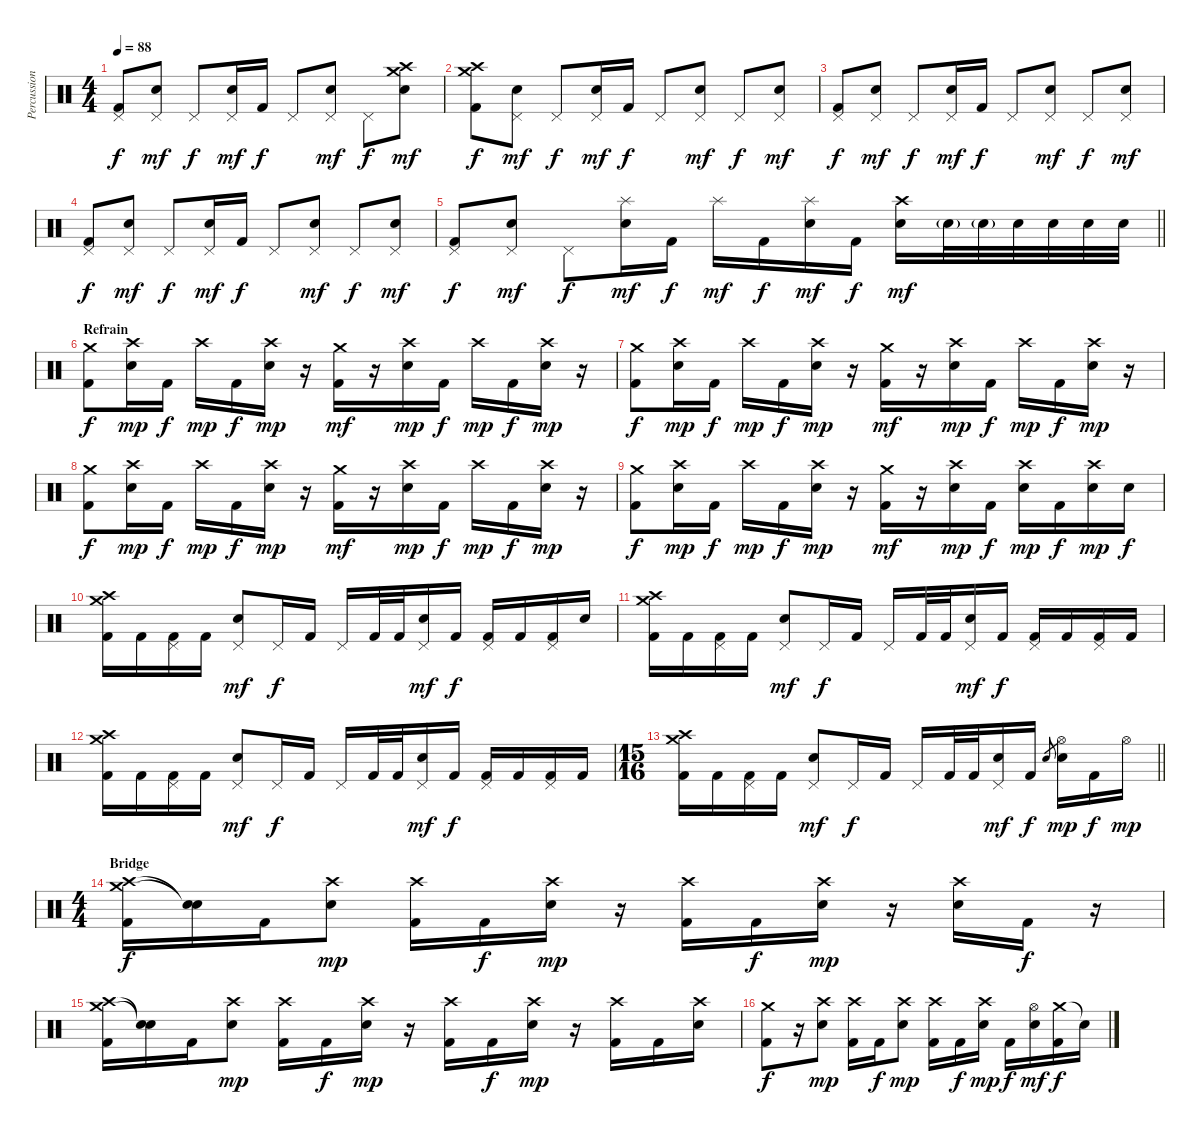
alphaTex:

\track ("Percussion" "Percussion") {instrument percussion}
\staff {score}
\articulation defaults
\ts (4 4)
\tempo 88
\clef neutral
\ks c
("Pedal Hi-Hat (hit)" "Kick (hit) 2").8{dy f} ("Pedal Hi-Hat (hit)" "Electric Snare (hit)").8{dy mf} "Pedal Hi-Hat (hit)".8{dy f} ("Pedal Hi-Hat (hit)" "Electric Snare (hit)").16{dy mf} "Kick (hit) 2".16{dy f} "Pedal Hi-Hat (hit)".8 ("Pedal Hi-Hat (hit)" "Electric Snare (hit)").8{dy mf} "Pedal Hi-Hat (hit)".8{dy f} ("Crash high (hit)" "Crash medium (hit)" "Electric Snare (hit)").8{dy mf} |
("Crash high (hit)" "Crash medium (hit)" "Kick (hit) 2").8{dy f} ("Pedal Hi-Hat (hit)" "Electric Snare (hit)").8{dy mf} "Pedal Hi-Hat (hit)".8{dy f} ("Pedal Hi-Hat (hit)" "Electric Snare (hit)").16{dy mf} "Kick (hit) 2".16{dy f} "Pedal Hi-Hat (hit)".8 ("Pedal Hi-Hat (hit)" "Electric Snare (hit)").8{dy mf} "Pedal Hi-Hat (hit)".8{dy f} ("Pedal Hi-Hat (hit)" "Electric Snare (hit)").8{dy mf} |
("Pedal Hi-Hat (hit)" "Kick (hit) 2").8{dy f} ("Pedal Hi-Hat (hit)" "Electric Snare (hit)").8{dy mf} "Pedal Hi-Hat (hit)".8{dy f} ("Pedal Hi-Hat (hit)" "Electric Snare (hit)").16{dy mf} "Kick (hit) 2".16{dy f} "Pedal Hi-Hat (hit)".8 ("Pedal Hi-Hat (hit)" "Electric Snare (hit)").8{dy mf} "Pedal Hi-Hat (hit)".8{dy f} ("Pedal Hi-Hat (hit)" "Electric Snare (hit)").8{dy mf} |
("Pedal Hi-Hat (hit)" "Kick (hit) 2").8{dy f} ("Pedal Hi-Hat (hit)" "Electric Snare (hit)").8{dy mf} "Pedal Hi-Hat (hit)".8{dy f} ("Pedal Hi-Hat (hit)" "Electric Snare (hit)").16{dy mf} "Kick (hit) 2".16{dy f} "Pedal Hi-Hat (hit)".8 ("Pedal Hi-Hat (hit)" "Electric Snare (hit)").8{dy mf} "Pedal Hi-Hat (hit)".8{dy f} ("Pedal Hi-Hat (hit)" "Electric Snare (hit)").8{dy mf} |
\barLineRight lightlight
("Pedal Hi-Hat (hit)" "Kick (hit) 2").8{dy f} ("Pedal Hi-Hat (hit)" "Electric Snare (hit)").8{dy mf} "Pedal Hi-Hat (hit)".8{dy f} ("Splash (hit)" "Electric Snare (hit)").16{dy mf} "Kick (hit) 2".16{dy f} "Splash (hit)".16{dy mf} "Kick (hit) 2".16{dy f} ("Splash (hit)" "Electric Snare (hit)").16{dy mf} "Kick (hit) 2".16{dy f} ("Crash high (hit)" "Electric Snare (hit)").16{dy mf} "Electric Snare (hit)"{g}.32 "Electric Snare (hit)"{g}.32 "Electric Snare (hit)".32 "Electric Snare (hit)".32 "Electric Snare (hit)".32 "Electric Snare (hit)".32 |
\section ("" "Refrain")
("Crash medium (hit)" "Kick (hit) 2").8{dy f} ("Crash high (hit)" "Electric Snare (hit)").16{dy mp} "Kick (hit) 2".16{dy f} "Crash high (hit)".16{dy mp} "Kick (hit) 2".16{dy f} ("Crash high (hit)" "Electric Snare (hit)").16{dy mp} r.16 ("Crash medium (hit)" "Kick (hit) 2").16{dy mf} r.16 ("Crash high (hit)" "Electric Snare (hit)").16{dy mp} "Kick (hit) 2".16{dy f} "Crash high (hit)".16{dy mp} "Kick (hit) 2".16{dy f} ("Crash high (hit)" "Electric Snare (hit)").16{dy mp} r.16 |
("Crash medium (hit)" "Kick (hit) 2").8{dy f} ("Crash high (hit)" "Electric Snare (hit)").16{dy mp} "Kick (hit) 2".16{dy f} "Crash high (hit)".16{dy mp} "Kick (hit) 2".16{dy f} ("Crash high (hit)" "Electric Snare (hit)").16{dy mp} r.16 ("Crash medium (hit)" "Kick (hit) 2").16{dy mf} r.16 ("Crash high (hit)" "Electric Snare (hit)").16{dy mp} "Kick (hit) 2".16{dy f} "Crash high (hit)".16{dy mp} "Kick (hit) 2".16{dy f} ("Crash high (hit)" "Electric Snare (hit)").16{dy mp} r.16 |
("Crash medium (hit)" "Kick (hit) 2").8{dy f} ("Crash high (hit)" "Electric Snare (hit)").16{dy mp} "Kick (hit) 2".16{dy f} "Crash high (hit)".16{dy mp} "Kick (hit) 2".16{dy f} ("Crash high (hit)" "Electric Snare (hit)").16{dy mp} r.16 ("Crash medium (hit)" "Kick (hit) 2").16{dy mf} r.16 ("Crash high (hit)" "Electric Snare (hit)").16{dy mp} "Kick (hit) 2".16{dy f} "Crash high (hit)".16{dy mp} "Kick (hit) 2".16{dy f} ("Crash high (hit)" "Electric Snare (hit)").16{dy mp} r.16 |
("Crash medium (hit)" "Kick (hit) 2").8{dy f} ("Crash high (hit)" "Electric Snare (hit)").16{dy mp} "Kick (hit) 2".16{dy f} "Crash high (hit)".16{dy mp} "Kick (hit) 2".16{dy f} ("Crash high (hit)" "Electric Snare (hit)").16{dy mp} r.16 ("Crash medium (hit)" "Kick (hit) 2").16{dy mf} r.16 ("Crash high (hit)" "Electric Snare (hit)").16{dy mp} "Kick (hit) 2".16{dy f} ("Crash high (hit)" "Electric Snare (hit)").16{dy mp} "Kick (hit) 2".16{dy f} ("Crash high (hit)" "Electric Snare (hit)").16{dy mp} "Electric Snare (hit)".16{dy f} |
("Crash high (hit)" "Crash medium (hit)" "Kick (hit) 2").16 "Kick (hit) 2".16 ("Pedal Hi-Hat (hit)" "Kick (hit) 2").16 "Kick (hit) 2".16 ("Pedal Hi-Hat (hit)" "Electric Snare (hit)").8{dy mf} "Pedal Hi-Hat (hit)".16{dy f} "Kick (hit) 2".16 "Pedal Hi-Hat (hit)".16 "Kick (hit) 2".32 "Kick (hit) 2".32 ("Pedal Hi-Hat (hit)" "Electric Snare (hit)").16{dy mf} "Kick (hit) 2".16{dy f} ("Pedal Hi-Hat (hit)" "Kick (hit) 2").16 "Kick (hit) 2".16 ("Pedal Hi-Hat (hit)" "Kick (hit) 2").16 "Electric Snare (hit)".16 |
("Crash high (hit)" "Crash medium (hit)" "Kick (hit) 2").16 "Kick (hit) 2".16 ("Pedal Hi-Hat (hit)" "Kick (hit) 2").16 "Kick (hit) 2".16 ("Pedal Hi-Hat (hit)" "Electric Snare (hit)").8{dy mf} "Pedal Hi-Hat (hit)".16{dy f} "Kick (hit) 2".16 "Pedal Hi-Hat (hit)".16 "Kick (hit) 2".32 "Kick (hit) 2".32 ("Pedal Hi-Hat (hit)" "Electric Snare (hit)").16{dy mf} "Kick (hit) 2".16{dy f} ("Pedal Hi-Hat (hit)" "Kick (hit) 2").16 "Kick (hit) 2".16 ("Pedal Hi-Hat (hit)" "Kick (hit) 2").16 "Kick (hit) 2".16 |
("Crash high (hit)" "Crash medium (hit)" "Kick (hit) 2").16 "Kick (hit) 2".16 ("Pedal Hi-Hat (hit)" "Kick (hit) 2").16 "Kick (hit) 2".16 ("Pedal Hi-Hat (hit)" "Electric Snare (hit)").8{dy mf} "Pedal Hi-Hat (hit)".16{dy f} "Kick (hit) 2".16 "Pedal Hi-Hat (hit)".16 "Kick (hit) 2".32 "Kick (hit) 2".32 ("Pedal Hi-Hat (hit)" "Electric Snare (hit)").16{dy mf} "Kick (hit) 2".16{dy f} ("Pedal Hi-Hat (hit)" "Kick (hit) 2").16 "Kick (hit) 2".16 ("Pedal Hi-Hat (hit)" "Kick (hit) 2").16 "Kick (hit) 2".16 |
\ts (15 16)
\barLineRight lightlight
("Crash high (hit)" "Crash medium (hit)" "Kick (hit) 2").16 "Kick (hit) 2".16 ("Pedal Hi-Hat (hit)" "Kick (hit) 2").16 "Kick (hit) 2".16 ("Pedal Hi-Hat (hit)" "Electric Snare (hit)").8{dy mf} "Pedal Hi-Hat (hit)".16{dy f} "Kick (hit) 2".16 "Pedal Hi-Hat (hit)".16 "Kick (hit) 2".32 "Kick (hit) 2".32 ("Pedal Hi-Hat (hit)" "Electric Snare (hit)").16{dy mf} "Kick (hit) 2".16{dy f} "Electric Snare (hit)".8{gr} ("Hi-Hat (open)" "Electric Snare (hit)").16{dy mp} "Kick (hit) 2".16{dy f} "Hi-Hat (open)".16{dy mp} |
\ts (4 4)
\section ("" "Bridge")
("Crash high (hit)" "Crash medium (hit)" "Kick (hit) 2").16{dy f} ("Snare (hit)"{t} "Snare (hit)"{t}).16 "Kick (hit) 2".16 ("Crash high (hit)" "Electric Snare (hit)").8{dy mp} ("Crash high (hit)" "Kick (hit) 2").16 "Kick (hit) 2".16{dy f} ("Crash high (hit)" "Electric Snare (hit)").16{dy mp} r.16 ("Crash high (hit)" "Kick (hit) 2").16 "Kick (hit) 2".16{dy f} ("Crash high (hit)" "Electric Snare (hit)").16{dy mp} r.16 ("Crash high (hit)" "Electric Snare (hit)").16 "Kick (hit) 2".16{dy f} r.16 |
("Crash high (hit)" "Crash medium (hit)" "Kick (hit) 2").16 ("Snare (hit)"{t} "Snare (hit)"{t}).16 "Kick (hit) 2".16 ("Crash high (hit)" "Electric Snare (hit)").8{dy mp} ("Crash high (hit)" "Kick (hit) 2").16 "Kick (hit) 2".16{dy f} ("Crash high (hit)" "Electric Snare (hit)").16{dy mp} r.16 ("Crash high (hit)" "Kick (hit) 2").16 "Kick (hit) 2".16{dy f} ("Crash high (hit)" "Electric Snare (hit)").16{dy mp} r.16 ("Crash high (hit)" "Kick (hit) 2").16 "Kick (hit) 2".16 ("Crash high (hit)" "Electric Snare (hit)").16 |
("Crash medium (hit)" "Kick (hit) 2").8{dy f} r.16 ("Crash high (hit)" "Electric Snare (hit)").8{dy mp} ("Crash high (hit)" "Kick (hit) 2").16 "Kick (hit) 2".16{dy f} ("Crash high (hit)" "Electric Snare (hit)").8{dy mp} ("Crash high (hit)" "Kick (hit) 2").16 "Kick (hit) 2".16{dy f} ("Crash high (hit)" "Electric Snare (hit)").16{dy mp} "Kick (hit) 2".16{dy f} ("Hi-Hat (open)" "Electric Snare (hit)").16{dy mf} ("Crash medium (hit)" "Kick (hit) 2").16{dy f} "Snare (hit)"{t}.16
